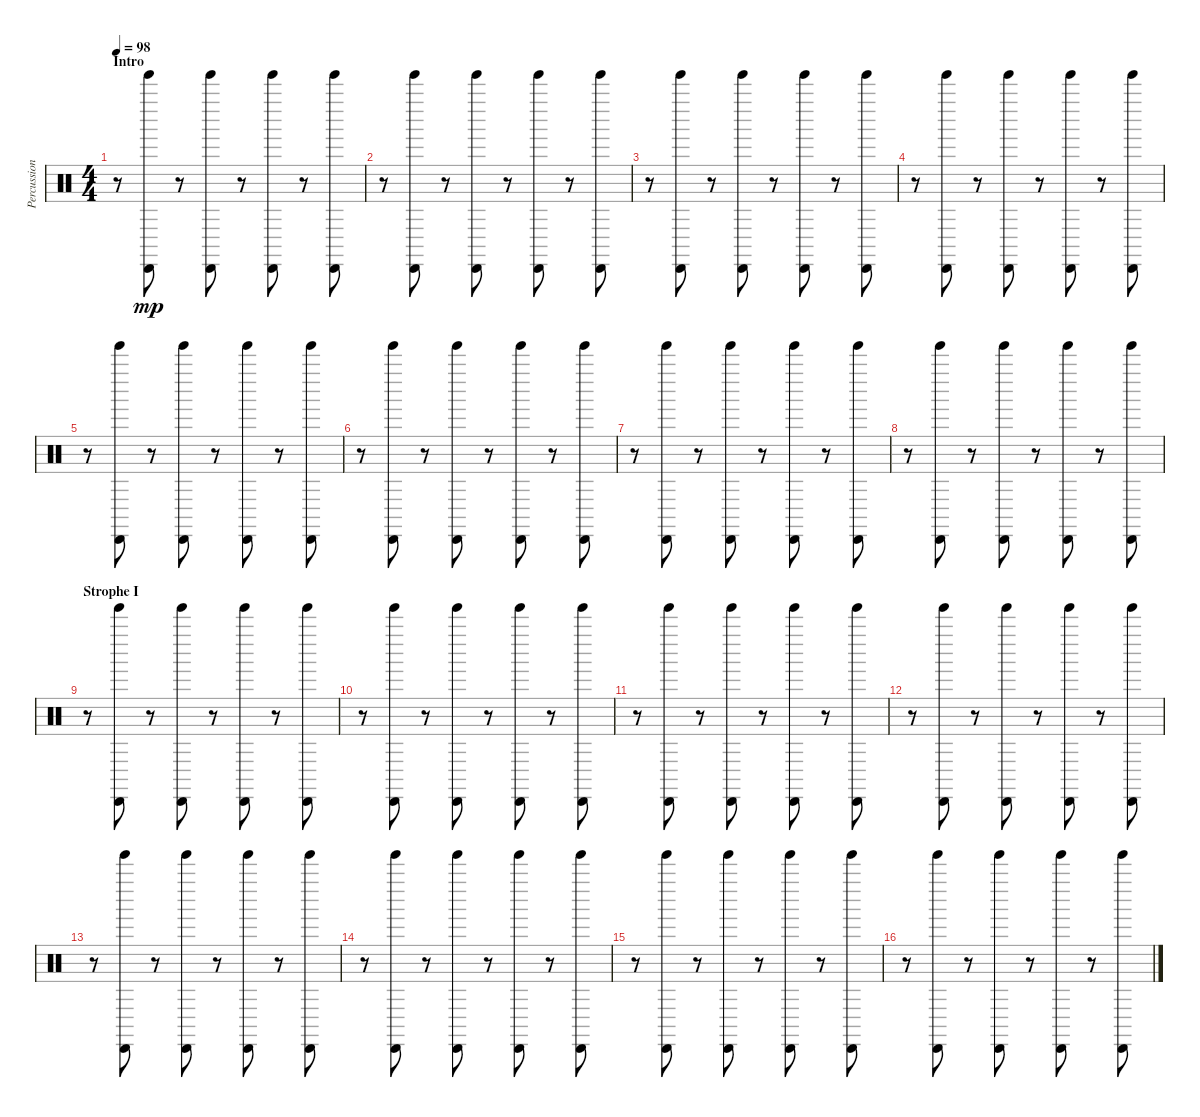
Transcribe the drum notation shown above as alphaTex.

\track ("Percussion" "Percussion") {instrument percussion}
\staff {score}
\articulation defaults
\ts (4 4)
\section ("" "Intro")
\tempo 98
\clef neutral
\ks c
r.8{dy mp} ("Tinkle Bell (hit)" "Cabasa (hit)").8 r.8 ("Tinkle Bell (hit)" "Cabasa (hit)").8 r.8 ("Tinkle Bell (hit)" "Cabasa (hit)").8 r.8 ("Tinkle Bell (hit)" "Cabasa (hit)").8 |
r.8 ("Tinkle Bell (hit)" "Cabasa (hit)").8 r.8 ("Tinkle Bell (hit)" "Cabasa (hit)").8 r.8 ("Tinkle Bell (hit)" "Cabasa (hit)").8 r.8 ("Tinkle Bell (hit)" "Cabasa (hit)").8 |
r.8 ("Tinkle Bell (hit)" "Cabasa (hit)").8 r.8 ("Tinkle Bell (hit)" "Cabasa (hit)").8 r.8 ("Tinkle Bell (hit)" "Cabasa (hit)").8 r.8 ("Tinkle Bell (hit)" "Cabasa (hit)").8 |
r.8 ("Tinkle Bell (hit)" "Cabasa (hit)").8 r.8 ("Tinkle Bell (hit)" "Cabasa (hit)").8 r.8 ("Tinkle Bell (hit)" "Cabasa (hit)").8 r.8 ("Tinkle Bell (hit)" "Cabasa (hit)").8 |
r.8 ("Tinkle Bell (hit)" "Cabasa (hit)").8 r.8 ("Tinkle Bell (hit)" "Cabasa (hit)").8 r.8 ("Tinkle Bell (hit)" "Cabasa (hit)").8 r.8 ("Tinkle Bell (hit)" "Cabasa (hit)").8 |
r.8 ("Tinkle Bell (hit)" "Cabasa (hit)").8 r.8 ("Tinkle Bell (hit)" "Cabasa (hit)").8 r.8 ("Tinkle Bell (hit)" "Cabasa (hit)").8 r.8 ("Tinkle Bell (hit)" "Cabasa (hit)").8 |
r.8 ("Tinkle Bell (hit)" "Cabasa (hit)").8 r.8 ("Tinkle Bell (hit)" "Cabasa (hit)").8 r.8 ("Tinkle Bell (hit)" "Cabasa (hit)").8 r.8 ("Tinkle Bell (hit)" "Cabasa (hit)").8 |
r.8 ("Tinkle Bell (hit)" "Cabasa (hit)").8 r.8 ("Tinkle Bell (hit)" "Cabasa (hit)").8 r.8 ("Tinkle Bell (hit)" "Cabasa (hit)").8 r.8 ("Tinkle Bell (hit)" "Cabasa (hit)").8 |
\section ("" "Strophe I")
r.8 ("Tinkle Bell (hit)" "Cabasa (hit)").8 r.8 ("Tinkle Bell (hit)" "Cabasa (hit)").8 r.8 ("Tinkle Bell (hit)" "Cabasa (hit)").8 r.8 ("Tinkle Bell (hit)" "Cabasa (hit)").8 |
r.8 ("Tinkle Bell (hit)" "Cabasa (hit)").8 r.8 ("Tinkle Bell (hit)" "Cabasa (hit)").8 r.8 ("Tinkle Bell (hit)" "Cabasa (hit)").8 r.8 ("Tinkle Bell (hit)" "Cabasa (hit)").8 |
r.8 ("Tinkle Bell (hit)" "Cabasa (hit)").8 r.8 ("Tinkle Bell (hit)" "Cabasa (hit)").8 r.8 ("Tinkle Bell (hit)" "Cabasa (hit)").8 r.8 ("Tinkle Bell (hit)" "Cabasa (hit)").8 |
r.8 ("Tinkle Bell (hit)" "Cabasa (hit)").8 r.8 ("Tinkle Bell (hit)" "Cabasa (hit)").8 r.8 ("Tinkle Bell (hit)" "Cabasa (hit)").8 r.8 ("Tinkle Bell (hit)" "Cabasa (hit)").8 |
r.8 ("Tinkle Bell (hit)" "Cabasa (hit)").8 r.8 ("Tinkle Bell (hit)" "Cabasa (hit)").8 r.8 ("Tinkle Bell (hit)" "Cabasa (hit)").8 r.8 ("Tinkle Bell (hit)" "Cabasa (hit)").8 |
r.8 ("Tinkle Bell (hit)" "Cabasa (hit)").8 r.8 ("Tinkle Bell (hit)" "Cabasa (hit)").8 r.8 ("Tinkle Bell (hit)" "Cabasa (hit)").8 r.8 ("Tinkle Bell (hit)" "Cabasa (hit)").8 |
r.8 ("Tinkle Bell (hit)" "Cabasa (hit)").8 r.8 ("Tinkle Bell (hit)" "Cabasa (hit)").8 r.8 ("Tinkle Bell (hit)" "Cabasa (hit)").8 r.8 ("Tinkle Bell (hit)" "Cabasa (hit)").8 |
r.8 ("Tinkle Bell (hit)" "Cabasa (hit)").8 r.8 ("Tinkle Bell (hit)" "Cabasa (hit)").8 r.8 ("Tinkle Bell (hit)" "Cabasa (hit)").8 r.8 ("Tinkle Bell (hit)" "Cabasa (hit)").8
